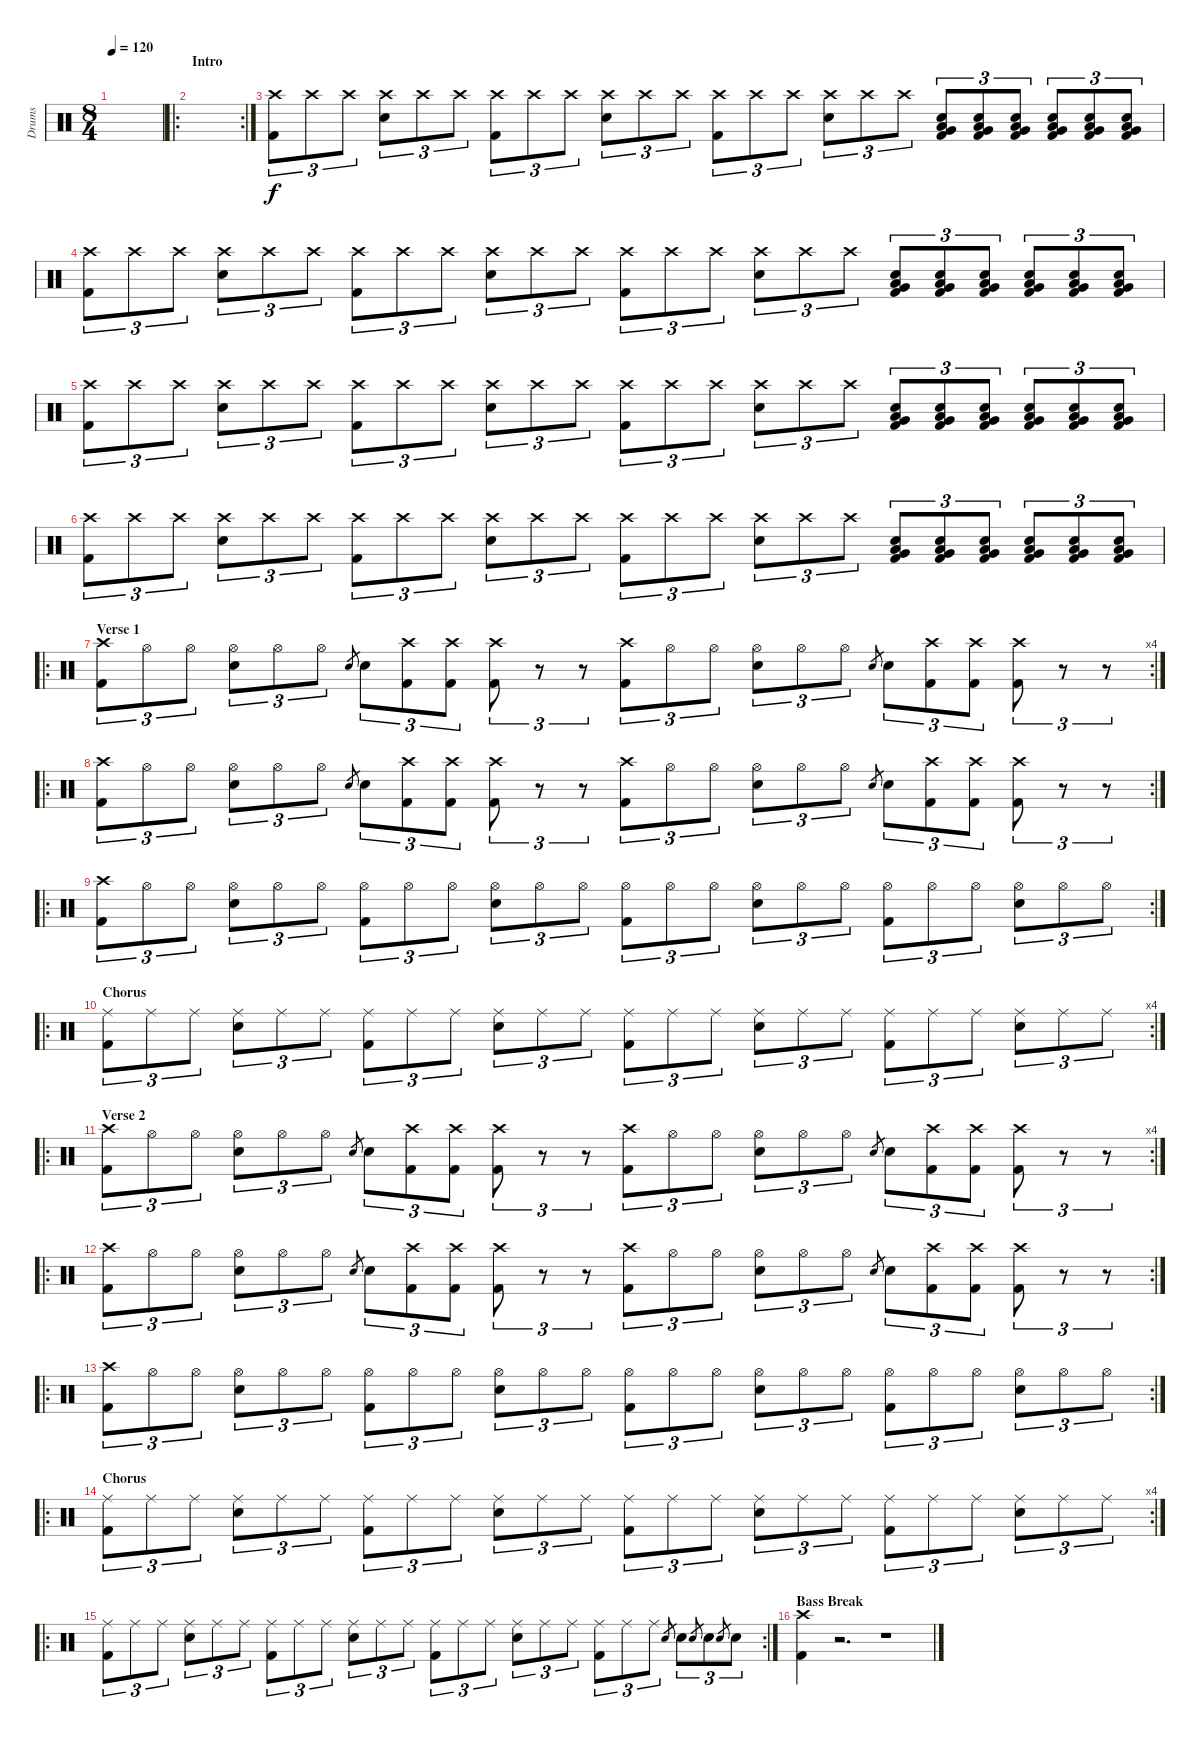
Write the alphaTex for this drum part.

\track ("Drums" "Drums") {instrument percussion}
\staff {score}
\articulation defaults
\ts (8 4)
\tempo 120
\clef neutral
\ks c
|
\ro
\rc 2
\section ("" "Intro")
|
("Crash high (hit)" "Kick (hit) 2").8{tu (3 2)} "Crash high (hit)".8{tu (3 2)} "Crash high (hit)".8{tu (3 2)} ("Crash high (hit)" "Electric Snare (hit)").8{tu (3 2)} "Crash high (hit)".8{tu (3 2)} "Crash high (hit)".8{tu (3 2)} ("Crash high (hit)" "Kick (hit) 2").8{tu (3 2)} "Crash high (hit)".8{tu (3 2)} "Crash high (hit)".8{tu (3 2)} ("Crash high (hit)" "Electric Snare (hit)").8{tu (3 2)} "Crash high (hit)".8{tu (3 2)} "Crash high (hit)".8{tu (3 2)} ("Crash high (hit)" "Kick (hit) 2").8{tu (3 2)} "Crash high (hit)".8{tu (3 2)} "Crash high (hit)".8{tu (3 2)} ("Crash high (hit)" "Electric Snare (hit)").8{tu (3 2)} "Crash high (hit)".8{tu (3 2)} "Crash high (hit)".8{tu (3 2)} ("Kick (hit) 2" "Very Low Tom (hit)" "Low Floor Tom (hit)" "Electric Snare (hit)").8{tu (3 2)} ("Kick (hit) 2" "Very Low Tom (hit)" "Low Floor Tom (hit)" "Electric Snare (hit)").8{tu (3 2)} ("Kick (hit) 2" "Very Low Tom (hit)" "Low Floor Tom (hit)" "Electric Snare (hit)").8{tu (3 2)} ("Kick (hit) 2" "Very Low Tom (hit)" "Low Floor Tom (hit)" "Electric Snare (hit)").8{tu (3 2)} ("Kick (hit) 2" "Very Low Tom (hit)" "Low Floor Tom (hit)" "Electric Snare (hit)").8{tu (3 2)} ("Kick (hit) 2" "Very Low Tom (hit)" "Low Floor Tom (hit)" "Electric Snare (hit)").8{tu (3 2)} |
("Crash high (hit)" "Kick (hit) 2").8{tu (3 2)} "Crash high (hit)".8{tu (3 2)} "Crash high (hit)".8{tu (3 2)} ("Crash high (hit)" "Electric Snare (hit)").8{tu (3 2)} "Crash high (hit)".8{tu (3 2)} "Crash high (hit)".8{tu (3 2)} ("Crash high (hit)" "Kick (hit) 2").8{tu (3 2)} "Crash high (hit)".8{tu (3 2)} "Crash high (hit)".8{tu (3 2)} ("Crash high (hit)" "Electric Snare (hit)").8{tu (3 2)} "Crash high (hit)".8{tu (3 2)} "Crash high (hit)".8{tu (3 2)} ("Crash high (hit)" "Kick (hit) 2").8{tu (3 2)} "Crash high (hit)".8{tu (3 2)} "Crash high (hit)".8{tu (3 2)} ("Crash high (hit)" "Electric Snare (hit)").8{tu (3 2)} "Crash high (hit)".8{tu (3 2)} "Crash high (hit)".8{tu (3 2)} ("Kick (hit) 2" "Very Low Tom (hit)" "Low Floor Tom (hit)" "Electric Snare (hit)").8{tu (3 2)} ("Kick (hit) 2" "Very Low Tom (hit)" "Low Floor Tom (hit)" "Electric Snare (hit)").8{tu (3 2)} ("Kick (hit) 2" "Very Low Tom (hit)" "Low Floor Tom (hit)" "Electric Snare (hit)").8{tu (3 2)} ("Kick (hit) 2" "Very Low Tom (hit)" "Low Floor Tom (hit)" "Electric Snare (hit)").8{tu (3 2)} ("Kick (hit) 2" "Very Low Tom (hit)" "Low Floor Tom (hit)" "Electric Snare (hit)").8{tu (3 2)} ("Kick (hit) 2" "Very Low Tom (hit)" "Low Floor Tom (hit)" "Electric Snare (hit)").8{tu (3 2)} |
("Crash high (hit)" "Kick (hit) 2").8{tu (3 2)} "Crash high (hit)".8{tu (3 2)} "Crash high (hit)".8{tu (3 2)} ("Crash high (hit)" "Electric Snare (hit)").8{tu (3 2)} "Crash high (hit)".8{tu (3 2)} "Crash high (hit)".8{tu (3 2)} ("Crash high (hit)" "Kick (hit) 2").8{tu (3 2)} "Crash high (hit)".8{tu (3 2)} "Crash high (hit)".8{tu (3 2)} ("Crash high (hit)" "Electric Snare (hit)").8{tu (3 2)} "Crash high (hit)".8{tu (3 2)} "Crash high (hit)".8{tu (3 2)} ("Crash high (hit)" "Kick (hit) 2").8{tu (3 2)} "Crash high (hit)".8{tu (3 2)} "Crash high (hit)".8{tu (3 2)} ("Crash high (hit)" "Electric Snare (hit)").8{tu (3 2)} "Crash high (hit)".8{tu (3 2)} "Crash high (hit)".8{tu (3 2)} ("Kick (hit) 2" "Very Low Tom (hit)" "Low Floor Tom (hit)" "Electric Snare (hit)").8{tu (3 2)} ("Kick (hit) 2" "Very Low Tom (hit)" "Low Floor Tom (hit)" "Electric Snare (hit)").8{tu (3 2)} ("Kick (hit) 2" "Very Low Tom (hit)" "Low Floor Tom (hit)" "Electric Snare (hit)").8{tu (3 2)} ("Kick (hit) 2" "Very Low Tom (hit)" "Low Floor Tom (hit)" "Electric Snare (hit)").8{tu (3 2)} ("Kick (hit) 2" "Very Low Tom (hit)" "Low Floor Tom (hit)" "Electric Snare (hit)").8{tu (3 2)} ("Kick (hit) 2" "Very Low Tom (hit)" "Low Floor Tom (hit)" "Electric Snare (hit)").8{tu (3 2)} |
("Crash high (hit)" "Kick (hit) 2").8{tu (3 2)} "Crash high (hit)".8{tu (3 2)} "Crash high (hit)".8{tu (3 2)} ("Crash high (hit)" "Electric Snare (hit)").8{tu (3 2)} "Crash high (hit)".8{tu (3 2)} "Crash high (hit)".8{tu (3 2)} ("Crash high (hit)" "Kick (hit) 2").8{tu (3 2)} "Crash high (hit)".8{tu (3 2)} "Crash high (hit)".8{tu (3 2)} ("Crash high (hit)" "Electric Snare (hit)").8{tu (3 2)} "Crash high (hit)".8{tu (3 2)} "Crash high (hit)".8{tu (3 2)} ("Crash high (hit)" "Kick (hit) 2").8{tu (3 2)} "Crash high (hit)".8{tu (3 2)} "Crash high (hit)".8{tu (3 2)} ("Crash high (hit)" "Electric Snare (hit)").8{tu (3 2)} "Crash high (hit)".8{tu (3 2)} "Crash high (hit)".8{tu (3 2)} ("Kick (hit) 2" "Very Low Tom (hit)" "Low Floor Tom (hit)" "Electric Snare (hit)").8{tu (3 2)} ("Kick (hit) 2" "Very Low Tom (hit)" "Low Floor Tom (hit)" "Electric Snare (hit)").8{tu (3 2)} ("Kick (hit) 2" "Very Low Tom (hit)" "Low Floor Tom (hit)" "Electric Snare (hit)").8{tu (3 2)} ("Kick (hit) 2" "Very Low Tom (hit)" "Low Floor Tom (hit)" "Electric Snare (hit)").8{tu (3 2)} ("Kick (hit) 2" "Very Low Tom (hit)" "Low Floor Tom (hit)" "Electric Snare (hit)").8{tu (3 2)} ("Kick (hit) 2" "Very Low Tom (hit)" "Low Floor Tom (hit)" "Electric Snare (hit)").8{tu (3 2)} |
\ro
\rc 4
\section ("" "Verse 1")
("Crash high (hit)" "Kick (hit) 2").8{tu (3 2)} "Hi-Hat (open)".8{tu (3 2)} "Hi-Hat (open)".8{tu (3 2)} ("Hi-Hat (open)" "Electric Snare (hit)").8{tu (3 2)} "Hi-Hat (open)".8{tu (3 2)} "Hi-Hat (open)".8{tu (3 2)} "Electric Snare (hit)".8{gr} "Electric Snare (hit)".8{tu (3 2)} ("Crash high (hit)" "Kick (hit) 2").8{tu (3 2)} ("Crash high (hit)" "Kick (hit) 2").8{tu (3 2)} ("Crash high (hit)" "Kick (hit) 2").8{tu (3 2)} r.8{tu (3 2)} r.8{tu (3 2)} ("Crash high (hit)" "Kick (hit) 2").8{tu (3 2)} "Hi-Hat (open)".8{tu (3 2)} "Hi-Hat (open)".8{tu (3 2)} ("Hi-Hat (open)" "Electric Snare (hit)").8{tu (3 2)} "Hi-Hat (open)".8{tu (3 2)} "Hi-Hat (open)".8{tu (3 2)} "Electric Snare (hit)".8{gr} "Electric Snare (hit)".8{tu (3 2)} ("Crash high (hit)" "Kick (hit) 2").8{tu (3 2)} ("Crash high (hit)" "Kick (hit) 2").8{tu (3 2)} ("Crash high (hit)" "Kick (hit) 2").8{tu (3 2)} r.8{tu (3 2)} r.8{tu (3 2)} |
\ro
\rc 2
("Crash high (hit)" "Kick (hit) 2").8{tu (3 2)} "Hi-Hat (open)".8{tu (3 2)} "Hi-Hat (open)".8{tu (3 2)} ("Hi-Hat (open)" "Electric Snare (hit)").8{tu (3 2)} "Hi-Hat (open)".8{tu (3 2)} "Hi-Hat (open)".8{tu (3 2)} "Electric Snare (hit)".8{gr} "Electric Snare (hit)".8{tu (3 2)} ("Crash high (hit)" "Kick (hit) 2").8{tu (3 2)} ("Crash high (hit)" "Kick (hit) 2").8{tu (3 2)} ("Crash high (hit)" "Kick (hit) 2").8{tu (3 2)} r.8{tu (3 2)} r.8{tu (3 2)} ("Crash high (hit)" "Kick (hit) 2").8{tu (3 2)} "Hi-Hat (open)".8{tu (3 2)} "Hi-Hat (open)".8{tu (3 2)} ("Hi-Hat (open)" "Electric Snare (hit)").8{tu (3 2)} "Hi-Hat (open)".8{tu (3 2)} "Hi-Hat (open)".8{tu (3 2)} "Electric Snare (hit)".8{gr} "Electric Snare (hit)".8{tu (3 2)} ("Crash high (hit)" "Kick (hit) 2").8{tu (3 2)} ("Crash high (hit)" "Kick (hit) 2").8{tu (3 2)} ("Crash high (hit)" "Kick (hit) 2").8{tu (3 2)} r.8{tu (3 2)} r.8{tu (3 2)} |
\ro
\rc 2
("Crash high (hit)" "Kick (hit) 2").8{tu (3 2)} "Hi-Hat (open)".8{tu (3 2)} "Hi-Hat (open)".8{tu (3 2)} ("Hi-Hat (open)" "Electric Snare (hit)").8{tu (3 2)} "Hi-Hat (open)".8{tu (3 2)} "Hi-Hat (open)".8{tu (3 2)} ("Hi-Hat (open)" "Kick (hit) 2").8{tu (3 2)} "Hi-Hat (open)".8{tu (3 2)} "Hi-Hat (open)".8{tu (3 2)} ("Hi-Hat (open)" "Electric Snare (hit)").8{tu (3 2)} "Hi-Hat (open)".8{tu (3 2)} "Hi-Hat (open)".8{tu (3 2)} ("Hi-Hat (open)" "Kick (hit) 2").8{tu (3 2)} "Hi-Hat (open)".8{tu (3 2)} "Hi-Hat (open)".8{tu (3 2)} ("Hi-Hat (open)" "Electric Snare (hit)").8{tu (3 2)} "Hi-Hat (open)".8{tu (3 2)} "Hi-Hat (open)".8{tu (3 2)} ("Hi-Hat (open)" "Kick (hit) 2").8{tu (3 2)} "Hi-Hat (open)".8{tu (3 2)} "Hi-Hat (open)".8{tu (3 2)} ("Hi-Hat (open)" "Electric Snare (hit)").8{tu (3 2)} "Hi-Hat (open)".8{tu (3 2)} "Hi-Hat (open)".8{tu (3 2)} |
\ro
\rc 4
\section ("" "Chorus")
("Ride (middle)" "Kick (hit) 2").8{tu (3 2)} "Ride (middle)".8{tu (3 2)} "Ride (middle)".8{tu (3 2)} ("Ride (middle)" "Electric Snare (hit)").8{tu (3 2)} "Ride (middle)".8{tu (3 2)} "Ride (middle)".8{tu (3 2)} ("Ride (middle)" "Kick (hit) 2").8{tu (3 2)} "Ride (middle)".8{tu (3 2)} "Ride (middle)".8{tu (3 2)} ("Ride (middle)" "Electric Snare (hit)").8{tu (3 2)} "Ride (middle)".8{tu (3 2)} "Ride (middle)".8{tu (3 2)} ("Ride (middle)" "Kick (hit) 2").8{tu (3 2)} "Ride (middle)".8{tu (3 2)} "Ride (middle)".8{tu (3 2)} ("Ride (middle)" "Electric Snare (hit)").8{tu (3 2)} "Ride (middle)".8{tu (3 2)} "Ride (middle)".8{tu (3 2)} ("Ride (middle)" "Kick (hit) 2").8{tu (3 2)} "Ride (middle)".8{tu (3 2)} "Ride (middle)".8{tu (3 2)} ("Ride (middle)" "Electric Snare (hit)").8{tu (3 2)} "Ride (middle)".8{tu (3 2)} "Ride (middle)".8{tu (3 2)} |
\ro
\rc 4
\section ("" "Verse 2")
("Crash high (hit)" "Kick (hit) 2").8{tu (3 2)} "Hi-Hat (open)".8{tu (3 2)} "Hi-Hat (open)".8{tu (3 2)} ("Hi-Hat (open)" "Electric Snare (hit)").8{tu (3 2)} "Hi-Hat (open)".8{tu (3 2)} "Hi-Hat (open)".8{tu (3 2)} "Electric Snare (hit)".8{gr} "Electric Snare (hit)".8{tu (3 2)} ("Crash high (hit)" "Kick (hit) 2").8{tu (3 2)} ("Crash high (hit)" "Kick (hit) 2").8{tu (3 2)} ("Crash high (hit)" "Kick (hit) 2").8{tu (3 2)} r.8{tu (3 2)} r.8{tu (3 2)} ("Crash high (hit)" "Kick (hit) 2").8{tu (3 2)} "Hi-Hat (open)".8{tu (3 2)} "Hi-Hat (open)".8{tu (3 2)} ("Hi-Hat (open)" "Electric Snare (hit)").8{tu (3 2)} "Hi-Hat (open)".8{tu (3 2)} "Hi-Hat (open)".8{tu (3 2)} "Electric Snare (hit)".8{gr} "Electric Snare (hit)".8{tu (3 2)} ("Crash high (hit)" "Kick (hit) 2").8{tu (3 2)} ("Crash high (hit)" "Kick (hit) 2").8{tu (3 2)} ("Crash high (hit)" "Kick (hit) 2").8{tu (3 2)} r.8{tu (3 2)} r.8{tu (3 2)} |
\ro
\rc 2
("Crash high (hit)" "Kick (hit) 2").8{tu (3 2)} "Hi-Hat (open)".8{tu (3 2)} "Hi-Hat (open)".8{tu (3 2)} ("Hi-Hat (open)" "Electric Snare (hit)").8{tu (3 2)} "Hi-Hat (open)".8{tu (3 2)} "Hi-Hat (open)".8{tu (3 2)} "Electric Snare (hit)".8{gr} "Electric Snare (hit)".8{tu (3 2)} ("Crash high (hit)" "Kick (hit) 2").8{tu (3 2)} ("Crash high (hit)" "Kick (hit) 2").8{tu (3 2)} ("Crash high (hit)" "Kick (hit) 2").8{tu (3 2)} r.8{tu (3 2)} r.8{tu (3 2)} ("Crash high (hit)" "Kick (hit) 2").8{tu (3 2)} "Hi-Hat (open)".8{tu (3 2)} "Hi-Hat (open)".8{tu (3 2)} ("Hi-Hat (open)" "Electric Snare (hit)").8{tu (3 2)} "Hi-Hat (open)".8{tu (3 2)} "Hi-Hat (open)".8{tu (3 2)} "Electric Snare (hit)".8{gr} "Electric Snare (hit)".8{tu (3 2)} ("Crash high (hit)" "Kick (hit) 2").8{tu (3 2)} ("Crash high (hit)" "Kick (hit) 2").8{tu (3 2)} ("Crash high (hit)" "Kick (hit) 2").8{tu (3 2)} r.8{tu (3 2)} r.8{tu (3 2)} |
\ro
\rc 2
("Crash high (hit)" "Kick (hit) 2").8{tu (3 2)} "Hi-Hat (open)".8{tu (3 2)} "Hi-Hat (open)".8{tu (3 2)} ("Hi-Hat (open)" "Electric Snare (hit)").8{tu (3 2)} "Hi-Hat (open)".8{tu (3 2)} "Hi-Hat (open)".8{tu (3 2)} ("Hi-Hat (open)" "Kick (hit) 2").8{tu (3 2)} "Hi-Hat (open)".8{tu (3 2)} "Hi-Hat (open)".8{tu (3 2)} ("Hi-Hat (open)" "Electric Snare (hit)").8{tu (3 2)} "Hi-Hat (open)".8{tu (3 2)} "Hi-Hat (open)".8{tu (3 2)} ("Hi-Hat (open)" "Kick (hit) 2").8{tu (3 2)} "Hi-Hat (open)".8{tu (3 2)} "Hi-Hat (open)".8{tu (3 2)} ("Hi-Hat (open)" "Electric Snare (hit)").8{tu (3 2)} "Hi-Hat (open)".8{tu (3 2)} "Hi-Hat (open)".8{tu (3 2)} ("Hi-Hat (open)" "Kick (hit) 2").8{tu (3 2)} "Hi-Hat (open)".8{tu (3 2)} "Hi-Hat (open)".8{tu (3 2)} ("Hi-Hat (open)" "Electric Snare (hit)").8{tu (3 2)} "Hi-Hat (open)".8{tu (3 2)} "Hi-Hat (open)".8{tu (3 2)} |
\ro
\rc 4
\section ("" "Chorus")
("Ride (middle)" "Kick (hit) 2").8{tu (3 2)} "Ride (middle)".8{tu (3 2)} "Ride (middle)".8{tu (3 2)} ("Ride (middle)" "Electric Snare (hit)").8{tu (3 2)} "Ride (middle)".8{tu (3 2)} "Ride (middle)".8{tu (3 2)} ("Ride (middle)" "Kick (hit) 2").8{tu (3 2)} "Ride (middle)".8{tu (3 2)} "Ride (middle)".8{tu (3 2)} ("Ride (middle)" "Electric Snare (hit)").8{tu (3 2)} "Ride (middle)".8{tu (3 2)} "Ride (middle)".8{tu (3 2)} ("Ride (middle)" "Kick (hit) 2").8{tu (3 2)} "Ride (middle)".8{tu (3 2)} "Ride (middle)".8{tu (3 2)} ("Ride (middle)" "Electric Snare (hit)").8{tu (3 2)} "Ride (middle)".8{tu (3 2)} "Ride (middle)".8{tu (3 2)} ("Ride (middle)" "Kick (hit) 2").8{tu (3 2)} "Ride (middle)".8{tu (3 2)} "Ride (middle)".8{tu (3 2)} ("Ride (middle)" "Electric Snare (hit)").8{tu (3 2)} "Ride (middle)".8{tu (3 2)} "Ride (middle)".8{tu (3 2)} |
\ro
\rc 2
("Ride (middle)" "Kick (hit) 2").8{tu (3 2)} "Ride (middle)".8{tu (3 2)} "Ride (middle)".8{tu (3 2)} ("Ride (middle)" "Electric Snare (hit)").8{tu (3 2)} "Ride (middle)".8{tu (3 2)} "Ride (middle)".8{tu (3 2)} ("Ride (middle)" "Kick (hit) 2").8{tu (3 2)} "Ride (middle)".8{tu (3 2)} "Ride (middle)".8{tu (3 2)} ("Ride (middle)" "Electric Snare (hit)").8{tu (3 2)} "Ride (middle)".8{tu (3 2)} "Ride (middle)".8{tu (3 2)} ("Ride (middle)" "Kick (hit) 2").8{tu (3 2)} "Ride (middle)".8{tu (3 2)} "Ride (middle)".8{tu (3 2)} ("Ride (middle)" "Electric Snare (hit)").8{tu (3 2)} "Ride (middle)".8{tu (3 2)} "Ride (middle)".8{tu (3 2)} ("Ride (middle)" "Kick (hit) 2").8{tu (3 2)} "Ride (middle)".8{tu (3 2)} "Ride (middle)".8{tu (3 2)} "Electric Snare (hit)".8{gr} "Electric Snare (hit)".8{tu (3 2)} "Electric Snare (hit)".8{gr} "Electric Snare (hit)".8{tu (3 2)} "Electric Snare (hit)".8{gr} "Electric Snare (hit)".8{tu (3 2)} |
\section ("" "Bass Break")
("Crash high (hit)" "Kick (hit) 2").4 r.2{d} r.1
